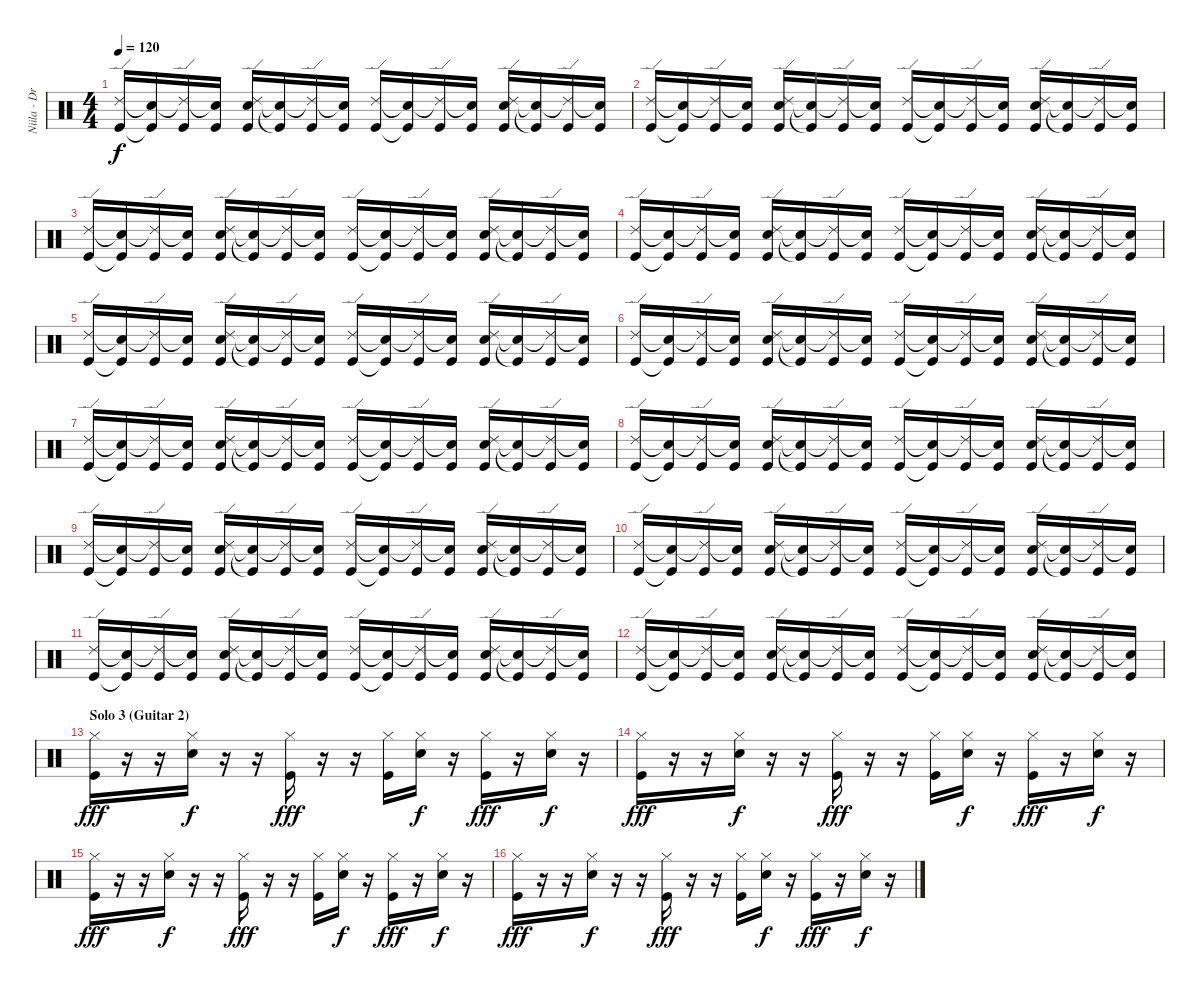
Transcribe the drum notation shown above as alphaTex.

\track ("Niila - Drums" "Niila - Dr") {instrument percussion}
\staff {score}
\articulation defaults
\ts (4 4)
\tempo 120
\clef neutral
\ks c
("Ride (edge) 2" "Kick (hit)").16{dy f} ("Snare (hit)"{t} "Kick (hit)"{t}).16 ("Ride (edge) 2"{t} "Kick (hit)").16 ("Snare (hit)"{t} "Kick (hit)").16 ("Ride (edge) 2" "Snare (hit) 2" "Kick (hit)").16 ("Snare (hit)"{t} "Kick (hit)"{t}).16 ("Ride (edge) 2"{t} "Kick (hit)").16 ("Snare (hit)"{t} "Kick (hit)").16 ("Ride (edge) 2" "Kick (hit)").16 ("Snare (hit)"{t} "Kick (hit)"{t}).16 ("Ride (edge) 2"{t} "Kick (hit)").16 ("Snare (hit)"{t} "Kick (hit)").16 ("Ride (edge) 2" "Snare (hit) 2" "Kick (hit)").16 ("Snare (hit)"{t} "Kick (hit)"{t}).16 ("Ride (edge) 2"{t} "Kick (hit)").16 ("Snare (hit)"{t} "Kick (hit)").16 |
("Ride (edge) 2" "Kick (hit)").16 ("Snare (hit)"{t} "Kick (hit)"{t}).16 ("Ride (edge) 2"{t} "Kick (hit)").16 ("Snare (hit)"{t} "Kick (hit)").16 ("Ride (edge) 2" "Snare (hit) 2" "Kick (hit)").16 ("Snare (hit)"{t} "Kick (hit)"{t}).16 ("Ride (edge) 2"{t} "Kick (hit)").16 ("Snare (hit)"{t} "Kick (hit)").16 ("Ride (edge) 2" "Kick (hit)").16 ("Snare (hit)"{t} "Kick (hit)"{t}).16 ("Ride (edge) 2"{t} "Kick (hit)").16 ("Snare (hit)"{t} "Kick (hit)").16 ("Ride (edge) 2" "Snare (hit) 2" "Kick (hit)").16 ("Snare (hit)"{t} "Kick (hit)"{t}).16 ("Ride (edge) 2"{t} "Kick (hit)").16 ("Snare (hit)"{t} "Kick (hit)").16 |
("Ride (edge) 2" "Kick (hit)").16 ("Snare (hit)"{t} "Kick (hit)"{t}).16 ("Ride (edge) 2"{t} "Kick (hit)").16 ("Snare (hit)"{t} "Kick (hit)").16 ("Ride (edge) 2" "Snare (hit) 2" "Kick (hit)").16 ("Snare (hit)"{t} "Kick (hit)"{t}).16 ("Ride (edge) 2"{t} "Kick (hit)").16 ("Snare (hit)"{t} "Kick (hit)").16 ("Ride (edge) 2" "Kick (hit)").16 ("Snare (hit)"{t} "Kick (hit)"{t}).16 ("Ride (edge) 2"{t} "Kick (hit)").16 ("Snare (hit)"{t} "Kick (hit)").16 ("Ride (edge) 2" "Snare (hit) 2" "Kick (hit)").16 ("Snare (hit)"{t} "Kick (hit)"{t}).16 ("Ride (edge) 2"{t} "Kick (hit)").16 ("Snare (hit)"{t} "Kick (hit)").16 |
("Ride (edge) 2" "Kick (hit)").16 ("Snare (hit)"{t} "Kick (hit)"{t}).16 ("Ride (edge) 2"{t} "Kick (hit)").16 ("Snare (hit)"{t} "Kick (hit)").16 ("Ride (edge) 2" "Snare (hit) 2" "Kick (hit)").16 ("Snare (hit)"{t} "Kick (hit)"{t}).16 ("Ride (edge) 2"{t} "Kick (hit)").16 ("Snare (hit)"{t} "Kick (hit)").16 ("Ride (edge) 2" "Kick (hit)").16 ("Snare (hit)"{t} "Kick (hit)"{t}).16 ("Ride (edge) 2"{t} "Kick (hit)").16 ("Snare (hit)"{t} "Kick (hit)").16 ("Ride (edge) 2" "Snare (hit) 2" "Kick (hit)").16 ("Snare (hit)"{t} "Kick (hit)"{t}).16 ("Ride (edge) 2"{t} "Kick (hit)").16 ("Snare (hit)"{t} "Kick (hit)").16 |
("Ride (edge) 2" "Kick (hit)").16 ("Snare (hit)"{t} "Kick (hit)"{t}).16 ("Ride (edge) 2"{t} "Kick (hit)").16 ("Snare (hit)"{t} "Kick (hit)").16 ("Ride (edge) 2" "Snare (hit) 2" "Kick (hit)").16 ("Snare (hit)"{t} "Kick (hit)"{t}).16 ("Ride (edge) 2"{t} "Kick (hit)").16 ("Snare (hit)"{t} "Kick (hit)").16 ("Ride (edge) 2" "Kick (hit)").16 ("Snare (hit)"{t} "Kick (hit)"{t}).16 ("Ride (edge) 2"{t} "Kick (hit)").16 ("Snare (hit)"{t} "Kick (hit)").16 ("Ride (edge) 2" "Snare (hit) 2" "Kick (hit)").16 ("Snare (hit)"{t} "Kick (hit)"{t}).16 ("Ride (edge) 2"{t} "Kick (hit)").16 ("Snare (hit)"{t} "Kick (hit)").16 |
("Ride (edge) 2" "Kick (hit)").16 ("Snare (hit)"{t} "Kick (hit)"{t}).16 ("Ride (edge) 2"{t} "Kick (hit)").16 ("Snare (hit)"{t} "Kick (hit)").16 ("Ride (edge) 2" "Snare (hit) 2" "Kick (hit)").16 ("Snare (hit)"{t} "Kick (hit)"{t}).16 ("Ride (edge) 2"{t} "Kick (hit)").16 ("Snare (hit)"{t} "Kick (hit)").16 ("Ride (edge) 2" "Kick (hit)").16 ("Snare (hit)"{t} "Kick (hit)"{t}).16 ("Ride (edge) 2"{t} "Kick (hit)").16 ("Snare (hit)"{t} "Kick (hit)").16 ("Ride (edge) 2" "Snare (hit) 2" "Kick (hit)").16 ("Snare (hit)"{t} "Kick (hit)"{t}).16 ("Ride (edge) 2"{t} "Kick (hit)").16 ("Snare (hit)"{t} "Kick (hit)").16 |
("Ride (edge) 2" "Kick (hit)").16 ("Snare (hit)"{t} "Kick (hit)"{t}).16 ("Ride (edge) 2"{t} "Kick (hit)").16 ("Snare (hit)"{t} "Kick (hit)").16 ("Ride (edge) 2" "Snare (hit) 2" "Kick (hit)").16 ("Snare (hit)"{t} "Kick (hit)"{t}).16 ("Ride (edge) 2"{t} "Kick (hit)").16 ("Snare (hit)"{t} "Kick (hit)").16 ("Ride (edge) 2" "Kick (hit)").16 ("Snare (hit)"{t} "Kick (hit)"{t}).16 ("Ride (edge) 2"{t} "Kick (hit)").16 ("Snare (hit)"{t} "Kick (hit)").16 ("Ride (edge) 2" "Snare (hit) 2" "Kick (hit)").16 ("Snare (hit)"{t} "Kick (hit)"{t}).16 ("Ride (edge) 2"{t} "Kick (hit)").16 ("Snare (hit)"{t} "Kick (hit)").16 |
("Ride (edge) 2" "Kick (hit)").16 ("Snare (hit)"{t} "Kick (hit)"{t}).16 ("Ride (edge) 2"{t} "Kick (hit)").16 ("Snare (hit)"{t} "Kick (hit)").16 ("Ride (edge) 2" "Snare (hit) 2" "Kick (hit)").16 ("Snare (hit)"{t} "Kick (hit)"{t}).16 ("Ride (edge) 2"{t} "Kick (hit)").16 ("Snare (hit)"{t} "Kick (hit)").16 ("Ride (edge) 2" "Kick (hit)").16 ("Snare (hit)"{t} "Kick (hit)"{t}).16 ("Ride (edge) 2"{t} "Kick (hit)").16 ("Snare (hit)"{t} "Kick (hit)").16 ("Ride (edge) 2" "Snare (hit) 2" "Kick (hit)").16 ("Snare (hit)"{t} "Kick (hit)"{t}).16 ("Ride (edge) 2"{t} "Kick (hit)").16 ("Snare (hit)"{t} "Kick (hit)").16 |
("Ride (edge) 2" "Kick (hit)").16 ("Snare (hit)"{t} "Kick (hit)"{t}).16 ("Ride (edge) 2"{t} "Kick (hit)").16 ("Snare (hit)"{t} "Kick (hit)").16 ("Ride (edge) 2" "Snare (hit) 2" "Kick (hit)").16 ("Snare (hit)"{t} "Kick (hit)"{t}).16 ("Ride (edge) 2"{t} "Kick (hit)").16 ("Snare (hit)"{t} "Kick (hit)").16 ("Ride (edge) 2" "Kick (hit)").16 ("Snare (hit)"{t} "Kick (hit)"{t}).16 ("Ride (edge) 2"{t} "Kick (hit)").16 ("Snare (hit)"{t} "Kick (hit)").16 ("Ride (edge) 2" "Snare (hit) 2" "Kick (hit)").16 ("Snare (hit)"{t} "Kick (hit)"{t}).16 ("Ride (edge) 2"{t} "Kick (hit)").16 ("Snare (hit)"{t} "Kick (hit)").16 |
("Ride (edge) 2" "Kick (hit)").16 ("Snare (hit)"{t} "Kick (hit)"{t}).16 ("Ride (edge) 2"{t} "Kick (hit)").16 ("Snare (hit)"{t} "Kick (hit)").16 ("Ride (edge) 2" "Snare (hit) 2" "Kick (hit)").16 ("Snare (hit)"{t} "Kick (hit)"{t}).16 ("Ride (edge) 2"{t} "Kick (hit)").16 ("Snare (hit)"{t} "Kick (hit)").16 ("Ride (edge) 2" "Kick (hit)").16 ("Snare (hit)"{t} "Kick (hit)"{t}).16 ("Ride (edge) 2"{t} "Kick (hit)").16 ("Snare (hit)"{t} "Kick (hit)").16 ("Ride (edge) 2" "Snare (hit) 2" "Kick (hit)").16 ("Snare (hit)"{t} "Kick (hit)"{t}).16 ("Ride (edge) 2"{t} "Kick (hit)").16 ("Snare (hit)"{t} "Kick (hit)").16 |
("Ride (edge) 2" "Kick (hit)").16 ("Snare (hit)"{t} "Kick (hit)"{t}).16 ("Ride (edge) 2"{t} "Kick (hit)").16 ("Snare (hit)"{t} "Kick (hit)").16 ("Ride (edge) 2" "Snare (hit) 2" "Kick (hit)").16 ("Snare (hit)"{t} "Kick (hit)"{t}).16 ("Ride (edge) 2"{t} "Kick (hit)").16 ("Snare (hit)"{t} "Kick (hit)").16 ("Ride (edge) 2" "Kick (hit)").16 ("Snare (hit)"{t} "Kick (hit)"{t}).16 ("Ride (edge) 2"{t} "Kick (hit)").16 ("Snare (hit)"{t} "Kick (hit)").16 ("Ride (edge) 2" "Snare (hit) 2" "Kick (hit)").16 ("Snare (hit)"{t} "Kick (hit)"{t}).16 ("Ride (edge) 2"{t} "Kick (hit)").16 ("Snare (hit)"{t} "Kick (hit)").16 |
("Ride (edge) 2" "Kick (hit)").16 ("Snare (hit)"{t} "Kick (hit)"{t}).16 ("Ride (edge) 2"{t} "Kick (hit)").16 ("Snare (hit)"{t} "Kick (hit)").16 ("Ride (edge) 2" "Snare (hit) 2" "Kick (hit)").16 ("Snare (hit)"{t} "Kick (hit)"{t}).16 ("Ride (edge) 2"{t} "Kick (hit)").16 ("Snare (hit)"{t} "Kick (hit)").16 ("Ride (edge) 2" "Kick (hit)").16 ("Snare (hit)"{t} "Kick (hit)"{t}).16 ("Ride (edge) 2"{t} "Kick (hit)").16 ("Snare (hit)"{t} "Kick (hit)").16 ("Ride (edge) 2" "Snare (hit) 2" "Kick (hit)").16 ("Snare (hit)"{t} "Kick (hit)"{t}).16 ("Ride (edge) 2"{t} "Kick (hit)").16 ("Snare (hit)"{t} "Kick (hit)").16 |
\section ("" "Solo 3 (Guitar 2) ")
("Hi-Hat (closed)" "Kick (hit)").16{dy fff} r.16 r.16 ("Hi-Hat (closed)" "Snare (hit) 2").16{dy f} r.16 r.16 ("Hi-Hat (closed)" "Kick (hit)").16{dy fff} r.16 r.16 ("Hi-Hat (closed)" "Kick (hit)").16 ("Hi-Hat (closed)" "Snare (hit) 2").16{dy f} r.16 ("Hi-Hat (closed)" "Kick (hit)").16{dy fff} r.16 ("Hi-Hat (closed)" "Snare (hit) 2").16{dy f} r.16 |
("Hi-Hat (closed)" "Kick (hit)").16{dy fff} r.16 r.16 ("Hi-Hat (closed)" "Snare (hit) 2").16{dy f} r.16 r.16 ("Hi-Hat (closed)" "Kick (hit)").16{dy fff} r.16 r.16 ("Hi-Hat (closed)" "Kick (hit)").16 ("Hi-Hat (closed)" "Snare (hit) 2").16{dy f} r.16 ("Hi-Hat (closed)" "Kick (hit)").16{dy fff} r.16 ("Hi-Hat (closed)" "Snare (hit) 2").16{dy f} r.16 |
("Hi-Hat (closed)" "Kick (hit)").16{dy fff} r.16 r.16 ("Hi-Hat (closed)" "Snare (hit) 2").16{dy f} r.16 r.16 ("Hi-Hat (closed)" "Kick (hit)").16{dy fff} r.16 r.16 ("Hi-Hat (closed)" "Kick (hit)").16 ("Hi-Hat (closed)" "Snare (hit) 2").16{dy f} r.16 ("Hi-Hat (closed)" "Kick (hit)").16{dy fff} r.16 ("Hi-Hat (closed)" "Snare (hit) 2").16{dy f} r.16 |
("Hi-Hat (closed)" "Kick (hit)").16{dy fff} r.16 r.16 ("Hi-Hat (closed)" "Snare (hit) 2").16{dy f} r.16 r.16 ("Hi-Hat (closed)" "Kick (hit)").16{dy fff} r.16 r.16 ("Hi-Hat (closed)" "Kick (hit)").16 ("Hi-Hat (closed)" "Snare (hit) 2").16{dy f} r.16 ("Hi-Hat (closed)" "Kick (hit)").16{dy fff} r.16 ("Hi-Hat (closed)" "Snare (hit) 2").16{dy f} r.16
